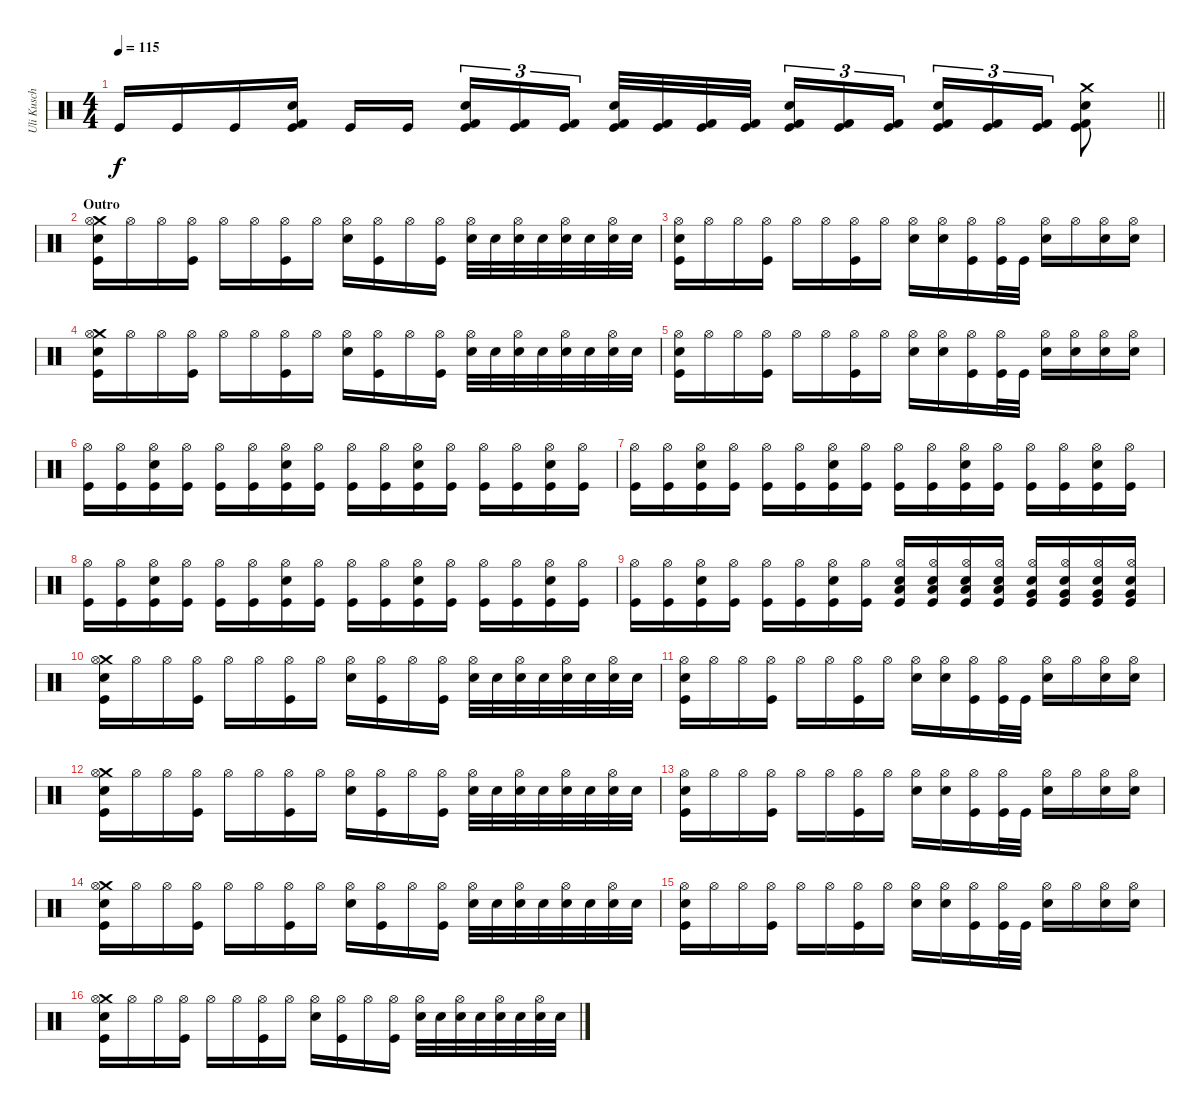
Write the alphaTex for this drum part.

\track ("Uli Kusch (Drums)" "Uli Kusch ") {instrument percussion}
\staff {score}
\articulation defaults
\ts (4 4)
\tempo 115
\clef neutral
\barLineRight lightlight
\ks c "Kick (hit)".16{dy f} "Kick (hit)".16 "Kick (hit)".16
("Snare (hit) 2" "Kick (hit) 2" "Kick (hit)").16 "Kick (hit)".16 "Kick (hit)".16{beam splitsecondary} ("Snare (hit) 2" "Kick (hit) 2" "Kick (hit)").16{tu (3 2)} ("Kick (hit) 2" "Kick (hit)").16{tu (3 2)} ("Kick (hit) 2" "Kick (hit)").16{tu (3 2)} ("Snare (hit) 2" "Kick (hit) 2" "Kick (hit)").32 ("Kick (hit) 2" "Kick (hit)").32 ("Kick (hit) 2" "Kick (hit)").32 ("Kick (hit) 2" "Kick (hit)").32{beam splitsecondary} ("Snare (hit) 2" "Kick (hit) 2" "Kick (hit)").16{tu (3 2)} ("Kick (hit) 2" "Kick (hit)").16{tu (3 2)} ("Kick (hit) 2" "Kick (hit)").16{tu (3 2)} ("Snare (hit) 2" "Kick (hit) 2" "Kick (hit)").16{tu (3 2)} ("Kick (hit) 2" "Kick (hit)").16{tu (3 2)} ("Kick (hit) 2" "Kick (hit)").16{tu (3 2)} ("Crash medium (hit)" "Snare (hit) 2" "Kick (hit) 2" "Kick (hit)").8 |
\section ("" "Outro")
("Crash medium (hit)" "Hi-Hat (open)" "Snare (hit) 2" "Kick (hit)").16 "Hi-Hat (open)".16 "Hi-Hat (open)".16 ("Hi-Hat (open)" "Kick (hit)").16 "Hi-Hat (open)".16 "Hi-Hat (open)".16 ("Hi-Hat (open)" "Kick (hit)").16 "Hi-Hat (open)".16 ("Hi-Hat (open)" "Snare (hit) 2").16 ("Hi-Hat (open)" "Kick (hit)").16 "Hi-Hat (open)".16 ("Hi-Hat (open)" "Kick (hit)").16 ("Hi-Hat (open)" "Snare (hit) 2").32 "Snare (hit) 2".32 ("Hi-Hat (open)" "Snare (hit) 2").32 "Snare (hit) 2".32 ("Hi-Hat (open)" "Snare (hit) 2").32 "Snare (hit) 2".32 ("Hi-Hat (open)" "Snare (hit) 2").32 "Snare (hit) 2".32 |
("Hi-Hat (open)" "Snare (hit) 2" "Kick (hit)").16 "Hi-Hat (open)".16 "Hi-Hat (open)".16 ("Hi-Hat (open)" "Kick (hit)").16 "Hi-Hat (open)".16 "Hi-Hat (open)".16 ("Hi-Hat (open)" "Kick (hit)").16 "Hi-Hat (open)".16 ("Hi-Hat (open)" "Snare (hit) 2").16 ("Hi-Hat (open)" "Snare (hit) 2").16 ("Hi-Hat (open)" "Kick (hit)").16 ("Hi-Hat (open)" "Kick (hit)").32 "Kick (hit)".32 ("Hi-Hat (open)" "Snare (hit) 2").16 "Hi-Hat (open)".16 ("Hi-Hat (open)" "Snare (hit) 2").16 ("Hi-Hat (open)" "Snare (hit) 2").16 |
("Crash medium (hit)" "Hi-Hat (open)" "Snare (hit) 2" "Kick (hit)").16 "Hi-Hat (open)".16 "Hi-Hat (open)".16 ("Hi-Hat (open)" "Kick (hit)").16 "Hi-Hat (open)".16 "Hi-Hat (open)".16 ("Hi-Hat (open)" "Kick (hit)").16 "Hi-Hat (open)".16 ("Hi-Hat (open)" "Snare (hit) 2").16 ("Hi-Hat (open)" "Kick (hit)").16 "Hi-Hat (open)".16 ("Hi-Hat (open)" "Kick (hit)").16 ("Hi-Hat (open)" "Snare (hit) 2").32 "Snare (hit) 2".32 ("Hi-Hat (open)" "Snare (hit) 2").32 "Snare (hit) 2".32 ("Hi-Hat (open)" "Snare (hit) 2").32 "Snare (hit) 2".32 ("Hi-Hat (open)" "Snare (hit) 2").32 "Snare (hit) 2".32 |
("Hi-Hat (open)" "Snare (hit) 2" "Kick (hit)").16 "Hi-Hat (open)".16 "Hi-Hat (open)".16 ("Hi-Hat (open)" "Kick (hit)").16 "Hi-Hat (open)".16 "Hi-Hat (open)".16 ("Hi-Hat (open)" "Kick (hit)").16 "Hi-Hat (open)".16 ("Hi-Hat (open)" "Snare (hit) 2").16 ("Hi-Hat (open)" "Snare (hit) 2").16 ("Hi-Hat (open)" "Kick (hit)").16 ("Hi-Hat (open)" "Kick (hit)").32 "Kick (hit)".32 ("Hi-Hat (open)" "Snare (hit) 2").16 ("Hi-Hat (open)" "Snare (hit) 2").16 ("Hi-Hat (open)" "Snare (hit) 2").16 ("Hi-Hat (open)" "Snare (hit) 2").16 |
("Hi-Hat (open)" "Kick (hit)").16 ("Hi-Hat (open)" "Kick (hit)").16 ("Hi-Hat (open)" "Snare (hit) 2" "Kick (hit)").16 ("Hi-Hat (open)" "Kick (hit)").16 ("Hi-Hat (open)" "Kick (hit)").16 ("Hi-Hat (open)" "Kick (hit)").16 ("Hi-Hat (open)" "Snare (hit) 2" "Kick (hit)").16 ("Hi-Hat (open)" "Kick (hit)").16 ("Hi-Hat (open)" "Kick (hit)").16 ("Hi-Hat (open)" "Kick (hit)").16 ("Hi-Hat (open)" "Snare (hit) 2" "Kick (hit)").16 ("Hi-Hat (open)" "Kick (hit)").16 ("Hi-Hat (open)" "Kick (hit)").16 ("Hi-Hat (open)" "Kick (hit)").16 ("Hi-Hat (open)" "Snare (hit) 2" "Kick (hit)").16 ("Hi-Hat (open)" "Kick (hit)").16 |
("Hi-Hat (open)" "Kick (hit)").16 ("Hi-Hat (open)" "Kick (hit)").16 ("Hi-Hat (open)" "Snare (hit) 2" "Kick (hit)").16 ("Hi-Hat (open)" "Kick (hit)").16 ("Hi-Hat (open)" "Kick (hit)").16 ("Hi-Hat (open)" "Kick (hit)").16 ("Hi-Hat (open)" "Snare (hit) 2" "Kick (hit)").16 ("Hi-Hat (open)" "Kick (hit)").16 ("Hi-Hat (open)" "Kick (hit)").16 ("Hi-Hat (open)" "Kick (hit)").16 ("Hi-Hat (open)" "Snare (hit) 2" "Kick (hit)").16 ("Hi-Hat (open)" "Kick (hit)").16 ("Hi-Hat (open)" "Kick (hit)").16 ("Hi-Hat (open)" "Kick (hit)").16 ("Hi-Hat (open)" "Snare (hit) 2" "Kick (hit)").16 ("Hi-Hat (open)" "Kick (hit)").16 |
("Hi-Hat (open)" "Kick (hit)").16 ("Hi-Hat (open)" "Kick (hit)").16 ("Hi-Hat (open)" "Snare (hit) 2" "Kick (hit)").16 ("Hi-Hat (open)" "Kick (hit)").16 ("Hi-Hat (open)" "Kick (hit)").16 ("Hi-Hat (open)" "Kick (hit)").16 ("Hi-Hat (open)" "Snare (hit) 2" "Kick (hit)").16 ("Hi-Hat (open)" "Kick (hit)").16 ("Hi-Hat (open)" "Kick (hit)").16 ("Hi-Hat (open)" "Kick (hit)").16 ("Hi-Hat (open)" "Snare (hit) 2" "Kick (hit)").16 ("Hi-Hat (open)" "Kick (hit)").16 ("Hi-Hat (open)" "Kick (hit)").16 ("Hi-Hat (open)" "Kick (hit)").16 ("Hi-Hat (open)" "Snare (hit) 2" "Kick (hit)").16 ("Hi-Hat (open)" "Kick (hit)").16 |
("Hi-Hat (open)" "Kick (hit)").16 ("Hi-Hat (open)" "Kick (hit)").16 ("Hi-Hat (open)" "Snare (hit) 2" "Kick (hit)").16 ("Hi-Hat (open)" "Kick (hit)").16 ("Hi-Hat (open)" "Kick (hit)").16 ("Hi-Hat (open)" "Kick (hit)").16 ("Hi-Hat (open)" "Snare (hit) 2" "Kick (hit)").16 ("Hi-Hat (open)" "Kick (hit)").16 ("Hi-Hat (open)" "Low Tom (hit)" "Snare (hit) 2" "Kick (hit)").16 ("Hi-Hat (open)" "Low Tom (hit)" "Snare (hit) 2" "Kick (hit)").16 ("Hi-Hat (open)" "Low Tom (hit)" "Snare (hit) 2" "Kick (hit)").16 ("Hi-Hat (open)" "Low Tom (hit)" "Snare (hit) 2" "Kick (hit)").16 ("Hi-Hat (open)" "Very Low Tom (hit)" "Snare (hit) 2" "Kick (hit)").16 ("Hi-Hat (open)" "Very Low Tom (hit)" "Snare (hit) 2" "Kick (hit)").16 ("Hi-Hat (open)" "Very Low Tom (hit)" "Snare (hit) 2" "Kick (hit)").16 ("Hi-Hat (open)" "Very Low Tom (hit)" "Snare (hit) 2" "Kick (hit)").16 |
("Crash medium (hit)" "Hi-Hat (open)" "Snare (hit) 2" "Kick (hit)").16 "Hi-Hat (open)".16 "Hi-Hat (open)".16 ("Hi-Hat (open)" "Kick (hit)").16 "Hi-Hat (open)".16 "Hi-Hat (open)".16 ("Hi-Hat (open)" "Kick (hit)").16 "Hi-Hat (open)".16 ("Hi-Hat (open)" "Snare (hit) 2").16 ("Hi-Hat (open)" "Kick (hit)").16 "Hi-Hat (open)".16 ("Hi-Hat (open)" "Kick (hit)").16 ("Hi-Hat (open)" "Snare (hit) 2").32 "Snare (hit) 2".32 ("Hi-Hat (open)" "Snare (hit) 2").32 "Snare (hit) 2".32 ("Hi-Hat (open)" "Snare (hit) 2").32 "Snare (hit) 2".32 ("Hi-Hat (open)" "Snare (hit) 2").32 "Snare (hit) 2".32 |
("Hi-Hat (open)" "Snare (hit) 2" "Kick (hit)").16 "Hi-Hat (open)".16 "Hi-Hat (open)".16 ("Hi-Hat (open)" "Kick (hit)").16 "Hi-Hat (open)".16 "Hi-Hat (open)".16 ("Hi-Hat (open)" "Kick (hit)").16 "Hi-Hat (open)".16 ("Hi-Hat (open)" "Snare (hit) 2").16 ("Hi-Hat (open)" "Snare (hit) 2").16 ("Hi-Hat (open)" "Kick (hit)").16 ("Hi-Hat (open)" "Kick (hit)").32 "Kick (hit)".32 ("Hi-Hat (open)" "Snare (hit) 2").16 "Hi-Hat (open)".16 ("Hi-Hat (open)" "Snare (hit) 2").16 ("Hi-Hat (open)" "Snare (hit) 2").16 |
("Crash medium (hit)" "Hi-Hat (open)" "Snare (hit) 2" "Kick (hit)").16 "Hi-Hat (open)".16 "Hi-Hat (open)".16 ("Hi-Hat (open)" "Kick (hit)").16 "Hi-Hat (open)".16 "Hi-Hat (open)".16 ("Hi-Hat (open)" "Kick (hit)").16 "Hi-Hat (open)".16 ("Hi-Hat (open)" "Snare (hit) 2").16 ("Hi-Hat (open)" "Kick (hit)").16 "Hi-Hat (open)".16 ("Hi-Hat (open)" "Kick (hit)").16 ("Hi-Hat (open)" "Snare (hit) 2").32 "Snare (hit) 2".32 ("Hi-Hat (open)" "Snare (hit) 2").32 "Snare (hit) 2".32 ("Hi-Hat (open)" "Snare (hit) 2").32 "Snare (hit) 2".32 ("Hi-Hat (open)" "Snare (hit) 2").32 "Snare (hit) 2".32 |
("Hi-Hat (open)" "Snare (hit) 2" "Kick (hit)").16 "Hi-Hat (open)".16 "Hi-Hat (open)".16 ("Hi-Hat (open)" "Kick (hit)").16 "Hi-Hat (open)".16 "Hi-Hat (open)".16 ("Hi-Hat (open)" "Kick (hit)").16 "Hi-Hat (open)".16 ("Hi-Hat (open)" "Snare (hit) 2").16 ("Hi-Hat (open)" "Snare (hit) 2").16 ("Hi-Hat (open)" "Kick (hit)").16 ("Hi-Hat (open)" "Kick (hit)").32 "Kick (hit)".32 ("Hi-Hat (open)" "Snare (hit) 2").16 "Hi-Hat (open)".16 ("Hi-Hat (open)" "Snare (hit) 2").16 ("Hi-Hat (open)" "Snare (hit) 2").16 |
("Crash medium (hit)" "Hi-Hat (open)" "Snare (hit) 2" "Kick (hit)").16 "Hi-Hat (open)".16 "Hi-Hat (open)".16 ("Hi-Hat (open)" "Kick (hit)").16 "Hi-Hat (open)".16 "Hi-Hat (open)".16 ("Hi-Hat (open)" "Kick (hit)").16 "Hi-Hat (open)".16 ("Hi-Hat (open)" "Snare (hit) 2").16 ("Hi-Hat (open)" "Kick (hit)").16 "Hi-Hat (open)".16 ("Hi-Hat (open)" "Kick (hit)").16 ("Hi-Hat (open)" "Snare (hit) 2").32 "Snare (hit) 2".32 ("Hi-Hat (open)" "Snare (hit) 2").32 "Snare (hit) 2".32 ("Hi-Hat (open)" "Snare (hit) 2").32 "Snare (hit) 2".32 ("Hi-Hat (open)" "Snare (hit) 2").32 "Snare (hit) 2".32 |
("Hi-Hat (open)" "Snare (hit) 2" "Kick (hit)").16 "Hi-Hat (open)".16 "Hi-Hat (open)".16 ("Hi-Hat (open)" "Kick (hit)").16 "Hi-Hat (open)".16 "Hi-Hat (open)".16 ("Hi-Hat (open)" "Kick (hit)").16 "Hi-Hat (open)".16 ("Hi-Hat (open)" "Snare (hit) 2").16 ("Hi-Hat (open)" "Snare (hit) 2").16 ("Hi-Hat (open)" "Kick (hit)").16 ("Hi-Hat (open)" "Kick (hit)").32 "Kick (hit)".32 ("Hi-Hat (open)" "Snare (hit) 2").16 "Hi-Hat (open)".16 ("Hi-Hat (open)" "Snare (hit) 2").16 ("Hi-Hat (open)" "Snare (hit) 2").16 |
("Crash medium (hit)" "Hi-Hat (open)" "Snare (hit) 2" "Kick (hit)").16 "Hi-Hat (open)".16 "Hi-Hat (open)".16 ("Hi-Hat (open)" "Kick (hit)").16 "Hi-Hat (open)".16 "Hi-Hat (open)".16 ("Hi-Hat (open)" "Kick (hit)").16 "Hi-Hat (open)".16 ("Hi-Hat (open)" "Snare (hit) 2").16 ("Hi-Hat (open)" "Kick (hit)").16 "Hi-Hat (open)".16 ("Hi-Hat (open)" "Kick (hit)").16 ("Hi-Hat (open)" "Snare (hit) 2").32 "Snare (hit) 2".32 ("Hi-Hat (open)" "Snare (hit) 2").32 "Snare (hit) 2".32 ("Hi-Hat (open)" "Snare (hit) 2").32 "Snare (hit) 2".32 ("Hi-Hat (open)" "Snare (hit) 2").32 "Snare (hit) 2".32
